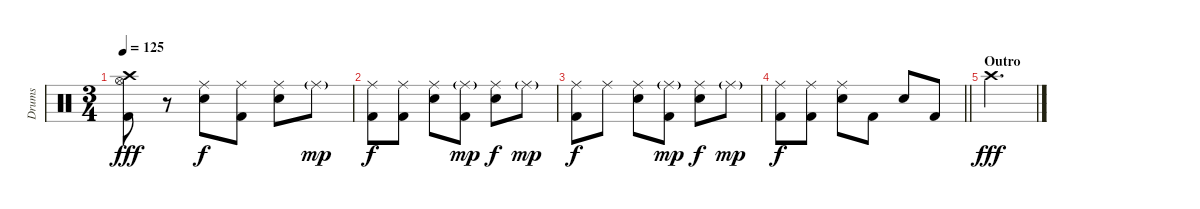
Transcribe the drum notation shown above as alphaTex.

\track ("Drums" "Drums") {instrument percussion}
\staff {score}
\articulation defaults
\ts (3 4)
\tempo 125
\clef neutral
\ks c
("Crash high (hit)" "Hi-Hat (open)" "Kick (hit) 2").8{dy fff} r.8 ("Ride (middle)" "Electric Snare (hit)").8{dy f} ("Ride (middle)" "Kick (hit) 2").8 ("Ride (middle)" "Electric Snare (hit)").8 "Ride (middle)"{g}.8{dy mp} |
("Ride (middle)" "Kick (hit) 2").8{dy f} ("Ride (middle)" "Kick (hit) 2").8 ("Ride (middle)" "Electric Snare (hit)").8 ("Ride (middle)"{g} "Kick (hit) 2").8{dy mp} ("Ride (middle)" "Electric Snare (hit)").8{dy f} "Ride (middle)"{g}.8{dy mp} |
("Ride (middle)" "Kick (hit) 2").8{dy f} "Ride (middle)".8 ("Ride (middle)" "Electric Snare (hit)").8 ("Ride (middle)"{g} "Kick (hit) 2").8{dy mp} ("Ride (middle)" "Electric Snare (hit)").8{dy f} "Ride (middle)"{g}.8{dy mp} |
\barLineRight lightlight
("Ride (middle)" "Kick (hit) 2").8{dy f} ("Ride (middle)" "Kick (hit) 2").8 ("Ride (middle)" "Electric Snare (hit)").8 "Kick (hit) 2".8 "Electric Snare (hit)".8 "Kick (hit) 2".8 |
\section ("" "Outro")
"Crash high (hit)".2{d dy fff}
